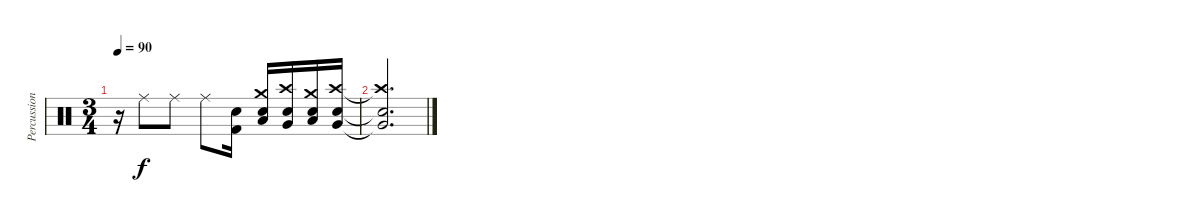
\track ("Percussion" "Percussion") {instrument percussion}
\staff {score}
\articulation defaults
\ts (3 4)
\tempo 90
\clef neutral
\ks c
r.16{dy f} "Ride (middle)".8 "Ride (middle)".8 "Ride (middle)".8 ("Snare (hit) 2" "Kick (hit) 2").16 ("Crash medium (hit)" "Low Floor Tom (hit)" "Snare (hit) 2").16 ("Crash high (hit)" "Very Low Tom (hit)" "Snare (hit) 2").16 ("Crash medium (hit)" "Low Floor Tom (hit)" "Snare (hit) 2").16 ("Crash high (hit)" "Very Low Tom (hit)" "Snare (hit) 2").16 |
("Crash high (hit)"{t} "Very Low Tom (hit)"{t} "Snare (hit) 2"{t}).2{d}
